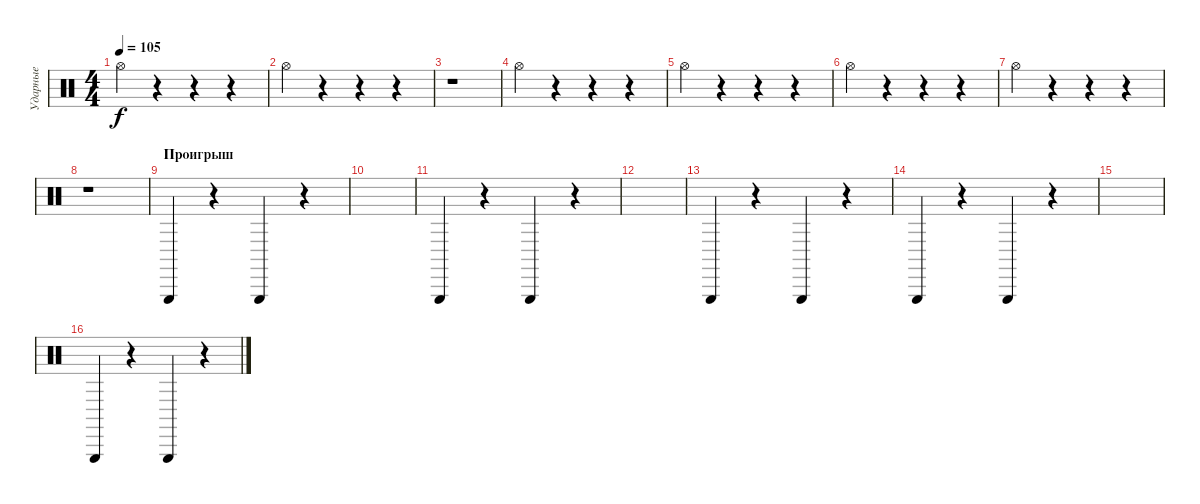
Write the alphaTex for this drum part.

\track ("Ударные" "Ударные") {instrument percussion}
\staff {score}
\articulation defaults
\ts (4 4)
\tempo 105
\clef neutral
\ks c "Hi-Hat (open)".4{dy f}
r.4 r.4 r.4 |
"Hi-Hat (open)".4 r.4 r.4 r.4 |
r.1 |
"Hi-Hat (open)".4 r.4 r.4 r.4 |
"Hi-Hat (open)".4 r.4 r.4 r.4 |
"Hi-Hat (open)".4 r.4 r.4 r.4 |
"Hi-Hat (open)".4 r.4 r.4 r.4 |
r.1 |
\section ("" "Проигрыш")
"Triangle (hit)".4 r.4 "Triangle (hit)".4 r.4 |
|
"Triangle (hit)".4 r.4 "Triangle (hit)".4 r.4 |
|
"Triangle (hit)".4 r.4 "Triangle (hit)".4 r.4 |
"Triangle (hit)".4 r.4 "Triangle (hit)".4 r.4 |
|
"Triangle (hit)".4 r.4 "Triangle (hit)".4 r.4
